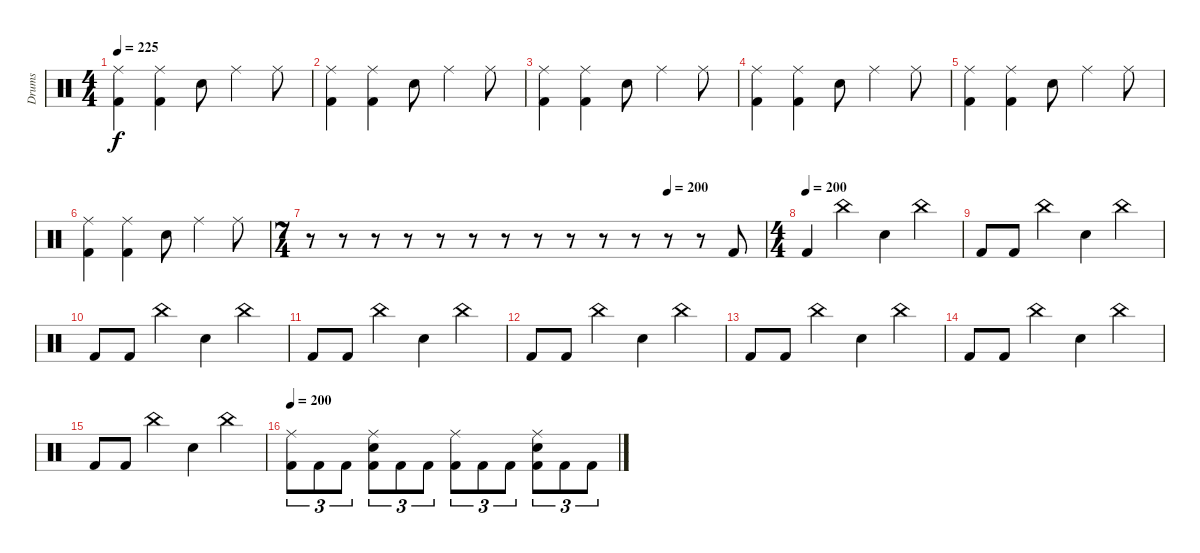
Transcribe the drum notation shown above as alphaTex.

\track ("Drums" "Drums") {instrument percussion}
\staff {score}
\articulation defaults
\ts (4 4)
\tempo 225
\clef neutral
\ks c
("Ride (middle)" "Kick (hit) 2").4{dy f} ("Ride (middle)" "Kick (hit) 2").4 "Electric Snare (hit)".8 "Ride (middle)".4 "Ride (middle)".8 |
("Ride (middle)" "Kick (hit) 2").4 ("Ride (middle)" "Kick (hit) 2").4 "Electric Snare (hit)".8 "Ride (middle)".4 "Ride (middle)".8 |
("Ride (middle)" "Kick (hit) 2").4 ("Ride (middle)" "Kick (hit) 2").4 "Electric Snare (hit)".8 "Ride (middle)".4 "Ride (middle)".8 |
("Ride (middle)" "Kick (hit) 2").4 ("Ride (middle)" "Kick (hit) 2").4 "Electric Snare (hit)".8 "Ride (middle)".4 "Ride (middle)".8 |
("Ride (middle)" "Kick (hit) 2").4 ("Ride (middle)" "Kick (hit) 2").4 "Electric Snare (hit)".8 "Ride (middle)".4 "Ride (middle)".8 |
("Ride (middle)" "Kick (hit) 2").4 ("Ride (middle)" "Kick (hit) 2").4 "Electric Snare (hit)".8 "Ride (middle)".4 "Ride (middle)".8 |
\ts (7 4)
\tempo (200 0.7857142857142857)
r.8 r.8 r.8 r.8 r.8 r.8 r.8 r.8 r.8 r.8 r.8 r.8 r.8 "Kick (hit) 2".8 |
\ts (4 4)
\tempo (200)
"Kick (hit) 2".4 "China (hit)".4 "Electric Snare (hit)".4 "China (hit)".4 |
"Kick (hit) 2".8 "Kick (hit) 2".8 "China (hit)".4 "Electric Snare (hit)".4 "China (hit)".4 |
"Kick (hit) 2".8 "Kick (hit) 2".8 "China (hit)".4 "Electric Snare (hit)".4 "China (hit)".4 |
"Kick (hit) 2".8 "Kick (hit) 2".8 "China (hit)".4 "Electric Snare (hit)".4 "China (hit)".4 |
"Kick (hit) 2".8 "Kick (hit) 2".8 "China (hit)".4 "Electric Snare (hit)".4 "China (hit)".4 |
"Kick (hit) 2".8 "Kick (hit) 2".8 "China (hit)".4 "Electric Snare (hit)".4 "China (hit)".4 |
"Kick (hit) 2".8 "Kick (hit) 2".8 "China (hit)".4 "Electric Snare (hit)".4 "China (hit)".4 |
"Kick (hit) 2".8 "Kick (hit) 2".8 "China (hit)".4 "Electric Snare (hit)".4 "China (hit)".4 |
\tempo 200
("Ride (middle)" "Kick (hit) 2").8{tu (3 2)} "Kick (hit) 2".8{tu (3 2)} "Kick (hit) 2".8{tu (3 2)} ("Ride (middle)" "Electric Snare (hit)" "Kick (hit) 2").8{tu (3 2)} "Kick (hit) 2".8{tu (3 2)} "Kick (hit) 2".8{tu (3 2)} ("Ride (middle)" "Kick (hit) 2").8{tu (3 2)} "Kick (hit) 2".8{tu (3 2)} "Kick (hit) 2".8{tu (3 2)} ("Ride (middle)" "Electric Snare (hit)" "Kick (hit) 2").8{tu (3 2)} "Kick (hit) 2".8{tu (3 2)} "Kick (hit) 2".8{tu (3 2)}
